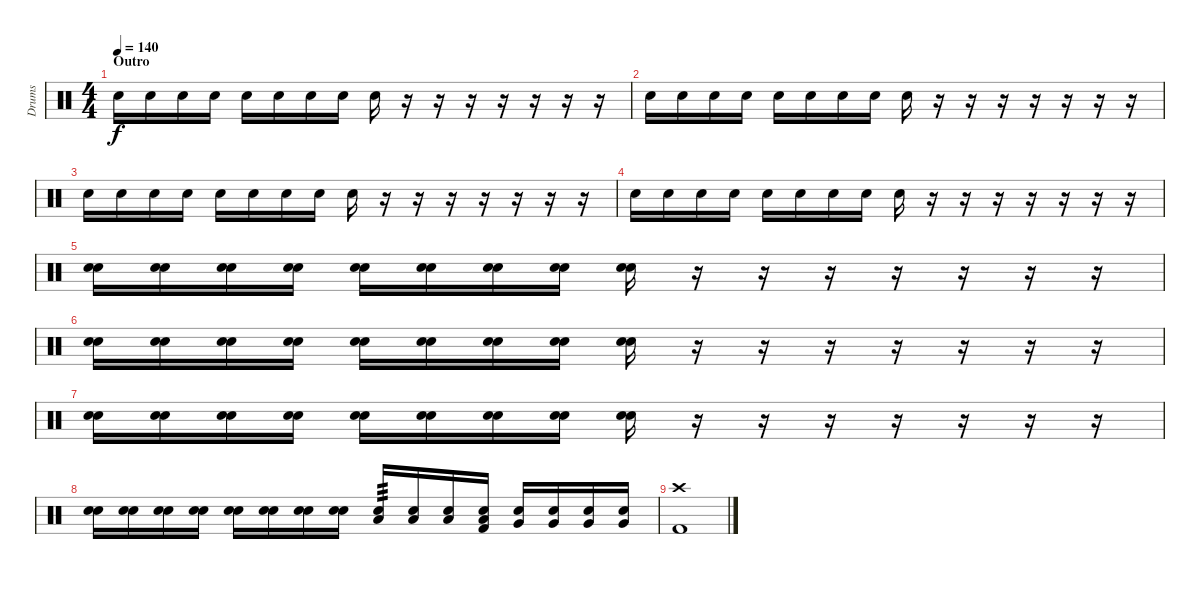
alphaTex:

\track ("Drums" "Drums") {instrument percussion}
\staff {score}
\articulation defaults
\ts (4 4)
\section ("" "Outro")
\tempo 140
\clef neutral
\ks c "Snare (hit) 2".16{dy f} "Snare (hit) 2".16 "Snare (hit) 2".16 "Snare (hit) 2".16 "Snare (hit) 2".16 "Snare (hit) 2".16 "Snare (hit) 2".16 "Snare (hit) 2".16 "Snare (hit) 2".16
r.16 r.16 r.16 r.16 r.16 r.16 r.16 |
"Snare (hit) 2".16 "Snare (hit) 2".16 "Snare (hit) 2".16 "Snare (hit) 2".16 "Snare (hit) 2".16 "Snare (hit) 2".16 "Snare (hit) 2".16 "Snare (hit) 2".16 "Snare (hit) 2".16 r.16 r.16 r.16 r.16 r.16 r.16 r.16 |
"Snare (hit) 2".16 "Snare (hit) 2".16 "Snare (hit) 2".16 "Snare (hit) 2".16 "Snare (hit) 2".16 "Snare (hit) 2".16 "Snare (hit) 2".16 "Snare (hit) 2".16 "Snare (hit) 2".16 r.16 r.16 r.16 r.16 r.16 r.16 r.16 |
"Snare (hit) 2".16 "Snare (hit) 2".16 "Snare (hit) 2".16 "Snare (hit) 2".16 "Snare (hit) 2".16 "Snare (hit) 2".16 "Snare (hit) 2".16 "Snare (hit) 2".16 "Snare (hit) 2".16 r.16 r.16 r.16 r.16 r.16 r.16 r.16 |
("Electric Snare (hit)" "Snare (hit) 2").16{volume 16} ("Electric Snare (hit)" "Snare (hit) 2").16 ("Electric Snare (hit)" "Snare (hit) 2").16 ("Electric Snare (hit)" "Snare (hit) 2").16 ("Electric Snare (hit)" "Snare (hit) 2").16 ("Electric Snare (hit)" "Snare (hit) 2").16 ("Electric Snare (hit)" "Snare (hit) 2").16 ("Electric Snare (hit)" "Snare (hit) 2").16 ("Electric Snare (hit)" "Snare (hit) 2").16 r.16 r.16 r.16 r.16 r.16 r.16 r.16 |
("Electric Snare (hit)" "Snare (hit) 2").16{volume 16} ("Electric Snare (hit)" "Snare (hit) 2").16 ("Electric Snare (hit)" "Snare (hit) 2").16 ("Electric Snare (hit)" "Snare (hit) 2").16 ("Electric Snare (hit)" "Snare (hit) 2").16 ("Electric Snare (hit)" "Snare (hit) 2").16 ("Electric Snare (hit)" "Snare (hit) 2").16 ("Electric Snare (hit)" "Snare (hit) 2").16 ("Electric Snare (hit)" "Snare (hit) 2").16 r.16 r.16 r.16 r.16 r.16 r.16 r.16 |
("Electric Snare (hit)" "Snare (hit) 2").16{volume 16} ("Electric Snare (hit)" "Snare (hit) 2").16 ("Electric Snare (hit)" "Snare (hit) 2").16 ("Electric Snare (hit)" "Snare (hit) 2").16 ("Electric Snare (hit)" "Snare (hit) 2").16 ("Electric Snare (hit)" "Snare (hit) 2").16 ("Electric Snare (hit)" "Snare (hit) 2").16 ("Electric Snare (hit)" "Snare (hit) 2").16 ("Electric Snare (hit)" "Snare (hit) 2").16 r.16 r.16 r.16 r.16 r.16 r.16 r.16 |
("Electric Snare (hit)" "Snare (hit) 2").16 ("Electric Snare (hit)" "Snare (hit) 2").16 ("Electric Snare (hit)" "Snare (hit) 2").16 ("Electric Snare (hit)" "Snare (hit) 2").16 ("Electric Snare (hit)" "Snare (hit) 2").16 ("Electric Snare (hit)" "Snare (hit) 2").16 ("Electric Snare (hit)" "Snare (hit) 2").16 ("Electric Snare (hit)" "Snare (hit) 2").16 ("Low Tom (hit)" "Snare (hit) 2").16{tp 3} ("Low Tom (hit)" "Snare (hit) 2").16 ("Low Tom (hit)" "Snare (hit) 2").16 ("Low Tom (hit)" "Snare (hit) 2" "Kick (hit) 2").16 ("Very Low Tom (hit)" "Snare (hit) 2").16 ("Very Low Tom (hit)" "Snare (hit) 2").16 ("Very Low Tom (hit)" "Snare (hit) 2").16 ("Very Low Tom (hit)" "Snare (hit) 2").16 |
("Kick (hit) 2" "Crash high (hit)").1
